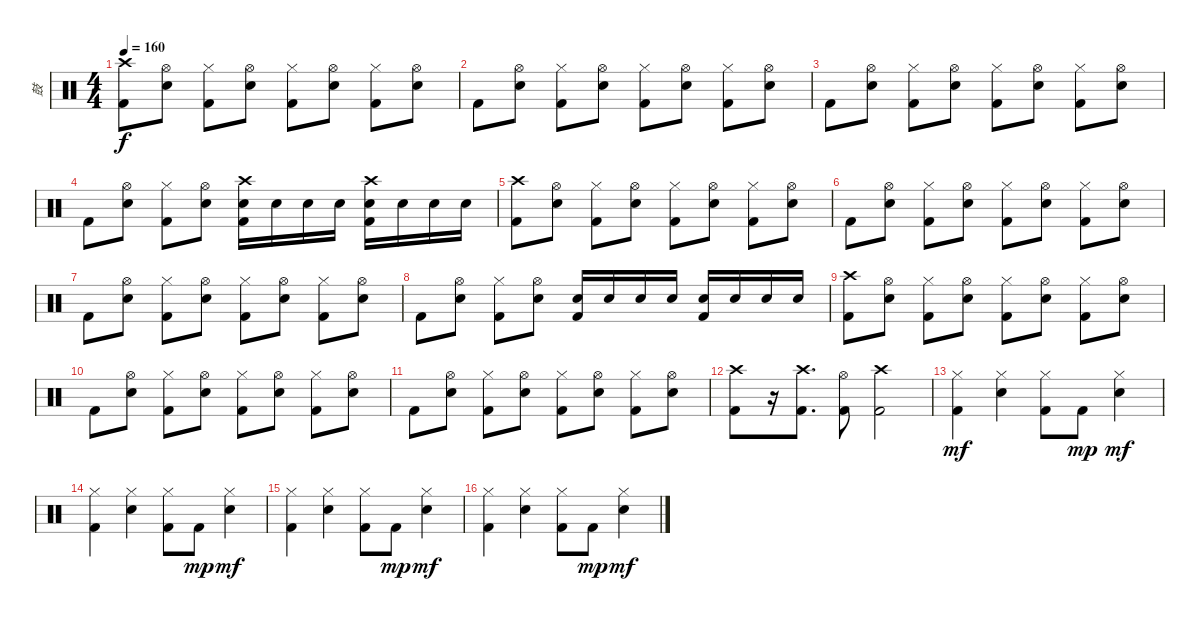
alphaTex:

\track ("鼓" "鼓") {instrument percussion}
\staff {score}
\articulation defaults
\ts (4 4)
\tempo 160
\clef neutral
\ks c
("Crash high (hit)" "Kick (hit) 2").8{dy f} ("Hi-Hat (open)" "Electric Snare (hit)").8 ("Hi-Hat (closed)" "Kick (hit) 2").8 ("Hi-Hat (open)" "Electric Snare (hit)").8 ("Hi-Hat (closed)" "Kick (hit) 2").8 ("Hi-Hat (open)" "Electric Snare (hit)").8 ("Hi-Hat (closed)" "Kick (hit) 2").8 ("Hi-Hat (open)" "Electric Snare (hit)").8 |
"Kick (hit) 2".8 ("Hi-Hat (open)" "Electric Snare (hit)").8 ("Hi-Hat (closed)" "Kick (hit) 2").8 ("Hi-Hat (open)" "Electric Snare (hit)").8 ("Hi-Hat (closed)" "Kick (hit) 2").8 ("Hi-Hat (open)" "Electric Snare (hit)").8 ("Hi-Hat (closed)" "Kick (hit) 2").8 ("Hi-Hat (open)" "Electric Snare (hit)").8 |
"Kick (hit) 2".8 ("Hi-Hat (open)" "Electric Snare (hit)").8 ("Hi-Hat (closed)" "Kick (hit) 2").8 ("Hi-Hat (open)" "Electric Snare (hit)").8 ("Hi-Hat (closed)" "Kick (hit) 2").8 ("Hi-Hat (open)" "Electric Snare (hit)").8 ("Hi-Hat (closed)" "Kick (hit) 2").8 ("Hi-Hat (open)" "Electric Snare (hit)").8 |
"Kick (hit) 2".8 ("Hi-Hat (open)" "Electric Snare (hit)").8 ("Hi-Hat (closed)" "Kick (hit) 2").8 ("Hi-Hat (open)" "Electric Snare (hit)").8 ("Crash high (hit)" "Electric Snare (hit)" "Kick (hit) 2").16 "Electric Snare (hit)".16 "Electric Snare (hit)".16 "Electric Snare (hit)".16 ("Crash high (hit)" "Electric Snare (hit)" "Kick (hit) 2").16 "Electric Snare (hit)".16 "Electric Snare (hit)".16 "Electric Snare (hit)".16 |
("Crash high (hit)" "Kick (hit) 2").8 ("Hi-Hat (open)" "Electric Snare (hit)").8 ("Hi-Hat (closed)" "Kick (hit) 2").8 ("Hi-Hat (open)" "Electric Snare (hit)").8 ("Hi-Hat (closed)" "Kick (hit) 2").8 ("Hi-Hat (open)" "Electric Snare (hit)").8 ("Hi-Hat (closed)" "Kick (hit) 2").8 ("Hi-Hat (open)" "Electric Snare (hit)").8 |
"Kick (hit) 2".8 ("Hi-Hat (open)" "Electric Snare (hit)").8 ("Hi-Hat (closed)" "Kick (hit) 2").8 ("Hi-Hat (open)" "Electric Snare (hit)").8 ("Hi-Hat (closed)" "Kick (hit) 2").8 ("Hi-Hat (open)" "Electric Snare (hit)").8 ("Hi-Hat (closed)" "Kick (hit) 2").8 ("Hi-Hat (open)" "Electric Snare (hit)").8 |
"Kick (hit) 2".8 ("Hi-Hat (open)" "Electric Snare (hit)").8 ("Hi-Hat (closed)" "Kick (hit) 2").8 ("Hi-Hat (open)" "Electric Snare (hit)").8 ("Hi-Hat (closed)" "Kick (hit) 2").8 ("Hi-Hat (open)" "Electric Snare (hit)").8 ("Hi-Hat (closed)" "Kick (hit) 2").8 ("Hi-Hat (open)" "Electric Snare (hit)").8 |
"Kick (hit) 2".8 ("Hi-Hat (open)" "Electric Snare (hit)").8 ("Hi-Hat (closed)" "Kick (hit) 2").8 ("Hi-Hat (open)" "Electric Snare (hit)").8 ("Electric Snare (hit)" "Kick (hit) 2").16 "Electric Snare (hit)".16 "Electric Snare (hit)".16 "Electric Snare (hit)".16 ("Electric Snare (hit)" "Kick (hit) 2").16 "Electric Snare (hit)".16 "Electric Snare (hit)".16 "Electric Snare (hit)".16 |
("Crash high (hit)" "Kick (hit) 2").8 ("Hi-Hat (open)" "Electric Snare (hit)").8 ("Hi-Hat (closed)" "Kick (hit) 2").8 ("Hi-Hat (open)" "Electric Snare (hit)").8 ("Hi-Hat (closed)" "Kick (hit) 2").8 ("Hi-Hat (open)" "Electric Snare (hit)").8 ("Hi-Hat (closed)" "Kick (hit) 2").8 ("Hi-Hat (open)" "Electric Snare (hit)").8 |
"Kick (hit) 2".8 ("Hi-Hat (open)" "Electric Snare (hit)").8 ("Hi-Hat (closed)" "Kick (hit) 2").8 ("Hi-Hat (open)" "Electric Snare (hit)").8 ("Hi-Hat (closed)" "Kick (hit) 2").8 ("Hi-Hat (open)" "Electric Snare (hit)").8 ("Hi-Hat (closed)" "Kick (hit) 2").8 ("Hi-Hat (open)" "Electric Snare (hit)").8 |
"Kick (hit) 2".8 ("Hi-Hat (open)" "Electric Snare (hit)").8 ("Hi-Hat (closed)" "Kick (hit) 2").8 ("Hi-Hat (open)" "Electric Snare (hit)").8 ("Hi-Hat (closed)" "Kick (hit) 2").8 ("Hi-Hat (open)" "Electric Snare (hit)").8 ("Hi-Hat (closed)" "Kick (hit) 2").8 ("Hi-Hat (open)" "Electric Snare (hit)").8 |
("Crash high (hit)" "Kick (hit) 2").8 r.16 ("Crash high (hit)" "Kick (hit) 2").8{d} ("Hi-Hat (open)" "Kick (hit) 2").8 ("Crash high (hit)" "Kick (hit) 2").2 |
("Hi-Hat (closed)" "Kick (hit) 2").4{dy mf} ("Snare (hit) 2" "Hi-Hat (closed)").4 ("Hi-Hat (closed)" "Kick (hit) 2").8 "Kick (hit) 2".8{dy mp} ("Snare (hit) 2" "Hi-Hat (closed)").4{dy mf} |
("Hi-Hat (closed)" "Kick (hit) 2").4 ("Snare (hit) 2" "Hi-Hat (closed)").4 ("Hi-Hat (closed)" "Kick (hit) 2").8 "Kick (hit) 2".8{dy mp} ("Snare (hit) 2" "Hi-Hat (closed)").4{dy mf} |
("Hi-Hat (closed)" "Kick (hit) 2").4 ("Snare (hit) 2" "Hi-Hat (closed)").4 ("Hi-Hat (closed)" "Kick (hit) 2").8 "Kick (hit) 2".8{dy mp} ("Snare (hit) 2" "Hi-Hat (closed)").4{dy mf} |
("Hi-Hat (closed)" "Kick (hit) 2").4 ("Snare (hit) 2" "Hi-Hat (closed)").4 ("Hi-Hat (closed)" "Kick (hit) 2").8 "Kick (hit) 2".8{dy mp} ("Snare (hit) 2" "Hi-Hat (closed)").4{dy mf}
